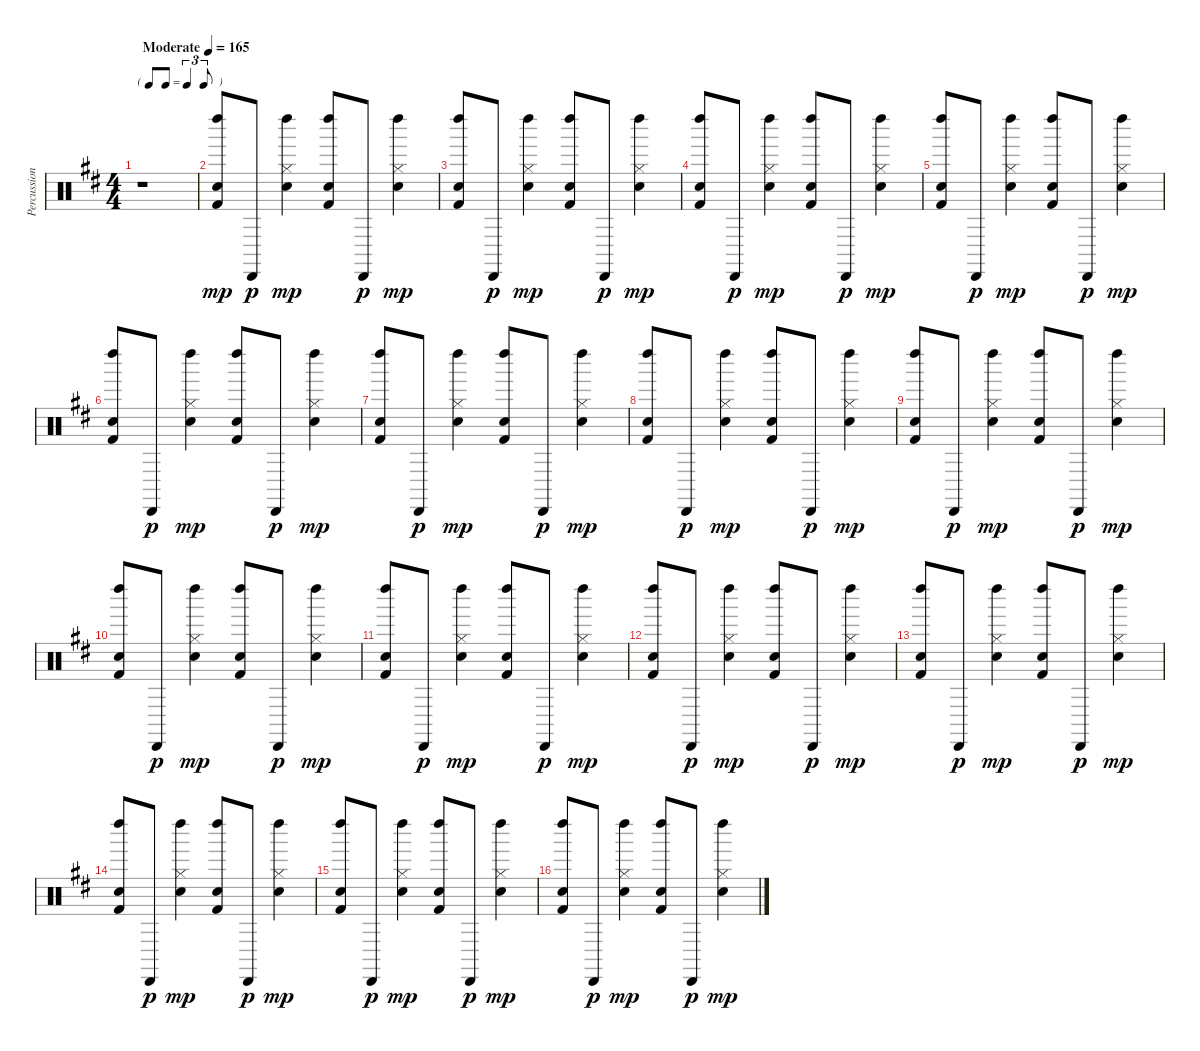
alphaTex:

\track ("Percussion" "Percussion") {instrument percussion}
\staff {score}
\articulation defaults
\ts (4 4)
\tf triplet8th
\tempo (165 "Moderate")
\clef neutral
\ks d
r.1{dy mp} |
("Left Maraca (hit)" "Snare (hit) 2" "Kick (hit) 2").8 "Cabasa (hit)".8{dy p} ("Left Maraca (hit)" "Hi-Hat (closed)" "Snare (hit) 2").4{dy mp} ("Left Maraca (hit)" "Snare (hit) 2" "Kick (hit) 2").8 "Cabasa (hit)".8{dy p} ("Left Maraca (hit)" "Hi-Hat (closed)" "Snare (hit) 2").4{dy mp} |
("Left Maraca (hit)" "Snare (hit) 2" "Kick (hit) 2").8 "Cabasa (hit)".8{dy p} ("Left Maraca (hit)" "Hi-Hat (closed)" "Snare (hit) 2").4{dy mp} ("Left Maraca (hit)" "Snare (hit) 2" "Kick (hit) 2").8 "Cabasa (hit)".8{dy p} ("Left Maraca (hit)" "Hi-Hat (closed)" "Snare (hit) 2").4{dy mp} |
("Left Maraca (hit)" "Snare (hit) 2" "Kick (hit) 2").8 "Cabasa (hit)".8{dy p} ("Left Maraca (hit)" "Hi-Hat (closed)" "Snare (hit) 2").4{dy mp} ("Left Maraca (hit)" "Snare (hit) 2" "Kick (hit) 2").8 "Cabasa (hit)".8{dy p} ("Left Maraca (hit)" "Hi-Hat (closed)" "Snare (hit) 2").4{dy mp} |
("Left Maraca (hit)" "Snare (hit) 2" "Kick (hit) 2").8 "Cabasa (hit)".8{dy p} ("Left Maraca (hit)" "Hi-Hat (closed)" "Snare (hit) 2").4{dy mp} ("Left Maraca (hit)" "Snare (hit) 2" "Kick (hit) 2").8 "Cabasa (hit)".8{dy p} ("Left Maraca (hit)" "Hi-Hat (closed)" "Snare (hit) 2").4{dy mp} |
("Left Maraca (hit)" "Snare (hit) 2" "Kick (hit) 2").8 "Cabasa (hit)".8{dy p} ("Left Maraca (hit)" "Hi-Hat (closed)" "Snare (hit) 2").4{dy mp} ("Left Maraca (hit)" "Snare (hit) 2" "Kick (hit) 2").8 "Cabasa (hit)".8{dy p} ("Left Maraca (hit)" "Hi-Hat (closed)" "Snare (hit) 2").4{dy mp} |
("Left Maraca (hit)" "Snare (hit) 2" "Kick (hit) 2").8 "Cabasa (hit)".8{dy p} ("Left Maraca (hit)" "Hi-Hat (closed)" "Snare (hit) 2").4{dy mp} ("Left Maraca (hit)" "Snare (hit) 2" "Kick (hit) 2").8 "Cabasa (hit)".8{dy p} ("Left Maraca (hit)" "Hi-Hat (closed)" "Snare (hit) 2").4{dy mp} |
("Left Maraca (hit)" "Snare (hit) 2" "Kick (hit) 2").8 "Cabasa (hit)".8{dy p} ("Left Maraca (hit)" "Hi-Hat (closed)" "Snare (hit) 2").4{dy mp} ("Left Maraca (hit)" "Snare (hit) 2" "Kick (hit) 2").8 "Cabasa (hit)".8{dy p} ("Left Maraca (hit)" "Hi-Hat (closed)" "Snare (hit) 2").4{dy mp} |
("Left Maraca (hit)" "Snare (hit) 2" "Kick (hit) 2").8 "Cabasa (hit)".8{dy p} ("Left Maraca (hit)" "Hi-Hat (closed)" "Snare (hit) 2").4{dy mp} ("Left Maraca (hit)" "Snare (hit) 2" "Kick (hit) 2").8 "Cabasa (hit)".8{dy p} ("Left Maraca (hit)" "Hi-Hat (closed)" "Snare (hit) 2").4{dy mp} |
("Left Maraca (hit)" "Snare (hit) 2" "Kick (hit) 2").8 "Cabasa (hit)".8{dy p} ("Left Maraca (hit)" "Hi-Hat (closed)" "Snare (hit) 2").4{dy mp} ("Left Maraca (hit)" "Snare (hit) 2" "Kick (hit) 2").8 "Cabasa (hit)".8{dy p} ("Left Maraca (hit)" "Hi-Hat (closed)" "Snare (hit) 2").4{dy mp} |
("Left Maraca (hit)" "Snare (hit) 2" "Kick (hit) 2").8 "Cabasa (hit)".8{dy p} ("Left Maraca (hit)" "Hi-Hat (closed)" "Snare (hit) 2").4{dy mp} ("Left Maraca (hit)" "Snare (hit) 2" "Kick (hit) 2").8 "Cabasa (hit)".8{dy p} ("Left Maraca (hit)" "Hi-Hat (closed)" "Snare (hit) 2").4{dy mp} |
("Left Maraca (hit)" "Snare (hit) 2" "Kick (hit) 2").8 "Cabasa (hit)".8{dy p} ("Left Maraca (hit)" "Hi-Hat (closed)" "Snare (hit) 2").4{dy mp} ("Left Maraca (hit)" "Snare (hit) 2" "Kick (hit) 2").8 "Cabasa (hit)".8{dy p} ("Left Maraca (hit)" "Hi-Hat (closed)" "Snare (hit) 2").4{dy mp} |
("Left Maraca (hit)" "Snare (hit) 2" "Kick (hit) 2").8 "Cabasa (hit)".8{dy p} ("Left Maraca (hit)" "Hi-Hat (closed)" "Snare (hit) 2").4{dy mp} ("Left Maraca (hit)" "Snare (hit) 2" "Kick (hit) 2").8 "Cabasa (hit)".8{dy p} ("Left Maraca (hit)" "Hi-Hat (closed)" "Snare (hit) 2").4{dy mp} |
("Left Maraca (hit)" "Snare (hit) 2" "Kick (hit) 2").8 "Cabasa (hit)".8{dy p} ("Left Maraca (hit)" "Hi-Hat (closed)" "Snare (hit) 2").4{dy mp} ("Left Maraca (hit)" "Snare (hit) 2" "Kick (hit) 2").8 "Cabasa (hit)".8{dy p} ("Left Maraca (hit)" "Hi-Hat (closed)" "Snare (hit) 2").4{dy mp} |
("Left Maraca (hit)" "Snare (hit) 2" "Kick (hit) 2").8 "Cabasa (hit)".8{dy p} ("Left Maraca (hit)" "Hi-Hat (closed)" "Snare (hit) 2").4{dy mp} ("Left Maraca (hit)" "Snare (hit) 2" "Kick (hit) 2").8 "Cabasa (hit)".8{dy p} ("Left Maraca (hit)" "Hi-Hat (closed)" "Snare (hit) 2").4{dy mp} |
("Left Maraca (hit)" "Snare (hit) 2" "Kick (hit) 2").8 "Cabasa (hit)".8{dy p} ("Left Maraca (hit)" "Hi-Hat (closed)" "Snare (hit) 2").4{dy mp} ("Left Maraca (hit)" "Snare (hit) 2" "Kick (hit) 2").8 "Cabasa (hit)".8{dy p} ("Left Maraca (hit)" "Hi-Hat (closed)" "Snare (hit) 2").4{dy mp}
